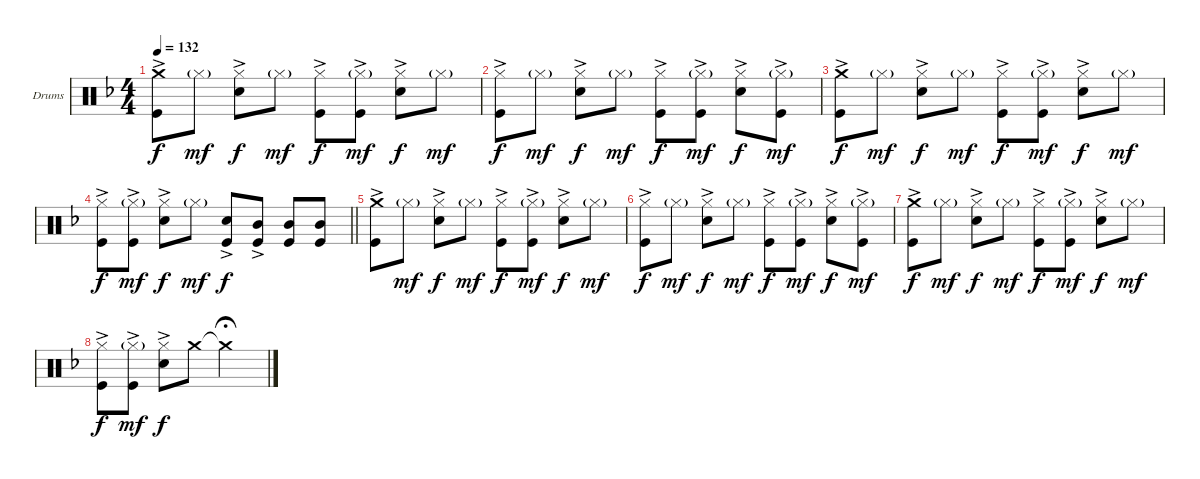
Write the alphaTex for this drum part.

\bracketExtendMode groupsimilarinstruments
\firstSystemTrackNameOrientation horizontal
\otherSystemsTrackNameOrientation horizontal
\track ("Drumkit" "Drums") {instrument percussion}
\staff {score}
\articulation defaults
\ts (4 4)
\tempo 132
\clef neutral
\ks f
("Crash medium (hit)" "Kick (hit)"{ac}).8{dy f} "Hi-Hat (closed)"{g}.8{dy mf} ("Hi-Hat (closed)" "Snare (hit) 2"{ac}).8{dy f} "Hi-Hat (closed)"{g}.8{dy mf} ("Hi-Hat (closed)" "Kick (hit)"{ac}).8{dy f} ("Hi-Hat (closed)"{g} "Kick (hit)"{ac}).8{dy mf} ("Hi-Hat (closed)" "Snare (hit) 2"{ac}).8{dy f} "Hi-Hat (closed)"{g}.8{dy mf} |
("Hi-Hat (closed)" "Kick (hit)"{ac}).8{dy f} "Hi-Hat (closed)"{g}.8{dy mf} ("Hi-Hat (closed)" "Snare (hit) 2"{ac}).8{dy f} "Hi-Hat (closed)"{g}.8{dy mf} ("Hi-Hat (closed)" "Kick (hit)"{ac}).8{dy f} ("Hi-Hat (closed)"{g} "Kick (hit)"{ac}).8{dy mf} ("Hi-Hat (closed)" "Snare (hit) 2"{ac}).8{dy f} ("Hi-Hat (closed)"{g} "Kick (hit)"{ac}).8{dy mf} |
("Crash medium (hit)" "Kick (hit)"{ac}).8{dy f} "Hi-Hat (closed)"{g}.8{dy mf} ("Hi-Hat (closed)" "Snare (hit) 2"{ac}).8{dy f} "Hi-Hat (closed)"{g}.8{dy mf} ("Hi-Hat (closed)" "Kick (hit)"{ac}).8{dy f} ("Hi-Hat (closed)"{g} "Kick (hit)"{ac}).8{dy mf} ("Hi-Hat (closed)" "Snare (hit) 2"{ac}).8{dy f} "Hi-Hat (closed)"{g}.8{dy mf} |
\barLineRight lightlight
("Hi-Hat (closed)" "Kick (hit)"{ac}).8{dy f} ("Hi-Hat (closed)"{g} "Kick (hit)"{ac}).8{dy mf} ("Hi-Hat (closed)" "Snare (hit) 2"{ac}).8{dy f} "Hi-Hat (closed)"{g}.8{dy mf} ("Snare (hit) 2"{ac} "Kick (hit)"{ac}).8{dy f} ("Mid Tom (hit)" "Kick (hit)"{ac}).8 ("Mid Tom (hit)" "Kick (hit)").8 ("Mid Tom (hit)" "Kick (hit)").8 |
("Crash medium (hit)" "Kick (hit)"{ac}).8 "Hi-Hat (closed)"{g}.8{dy mf} ("Hi-Hat (closed)" "Snare (hit) 2"{ac}).8{dy f} "Hi-Hat (closed)"{g}.8{dy mf} ("Hi-Hat (closed)" "Kick (hit)"{ac}).8{dy f} ("Hi-Hat (closed)"{g} "Kick (hit)"{ac}).8{dy mf} ("Hi-Hat (closed)" "Snare (hit) 2"{ac}).8{dy f} "Hi-Hat (closed)"{g}.8{dy mf} |
("Hi-Hat (closed)" "Kick (hit)"{ac}).8{dy f} "Hi-Hat (closed)"{g}.8{dy mf} ("Hi-Hat (closed)" "Snare (hit) 2"{ac}).8{dy f} "Hi-Hat (closed)"{g}.8{dy mf} ("Hi-Hat (closed)" "Kick (hit)"{ac}).8{dy f} ("Hi-Hat (closed)"{g} "Kick (hit)"{ac}).8{dy mf} ("Hi-Hat (closed)" "Snare (hit) 2"{ac}).8{dy f} ("Hi-Hat (closed)"{g} "Kick (hit)"{ac}).8{dy mf} |
("Crash medium (hit)" "Kick (hit)"{ac}).8{dy f} "Hi-Hat (closed)"{g}.8{dy mf} ("Hi-Hat (closed)" "Snare (hit) 2"{ac}).8{dy f} "Hi-Hat (closed)"{g}.8{dy mf} ("Hi-Hat (closed)" "Kick (hit)"{ac}).8{dy f} ("Hi-Hat (closed)"{g} "Kick (hit)"{ac}).8{dy mf} ("Hi-Hat (closed)" "Snare (hit) 2"{ac}).8{dy f} "Hi-Hat (closed)"{g}.8{dy mf} |
("Hi-Hat (closed)" "Kick (hit)"{ac}).8{dy f} ("Hi-Hat (closed)"{g} "Kick (hit)"{ac}).8{dy mf} ("Hi-Hat (closed)" "Snare (hit) 2"{ac}).8{dy f} "Crash medium (hit)".8 "Crash medium (hit)"{t}.2{fermata (medium 0.5)}
